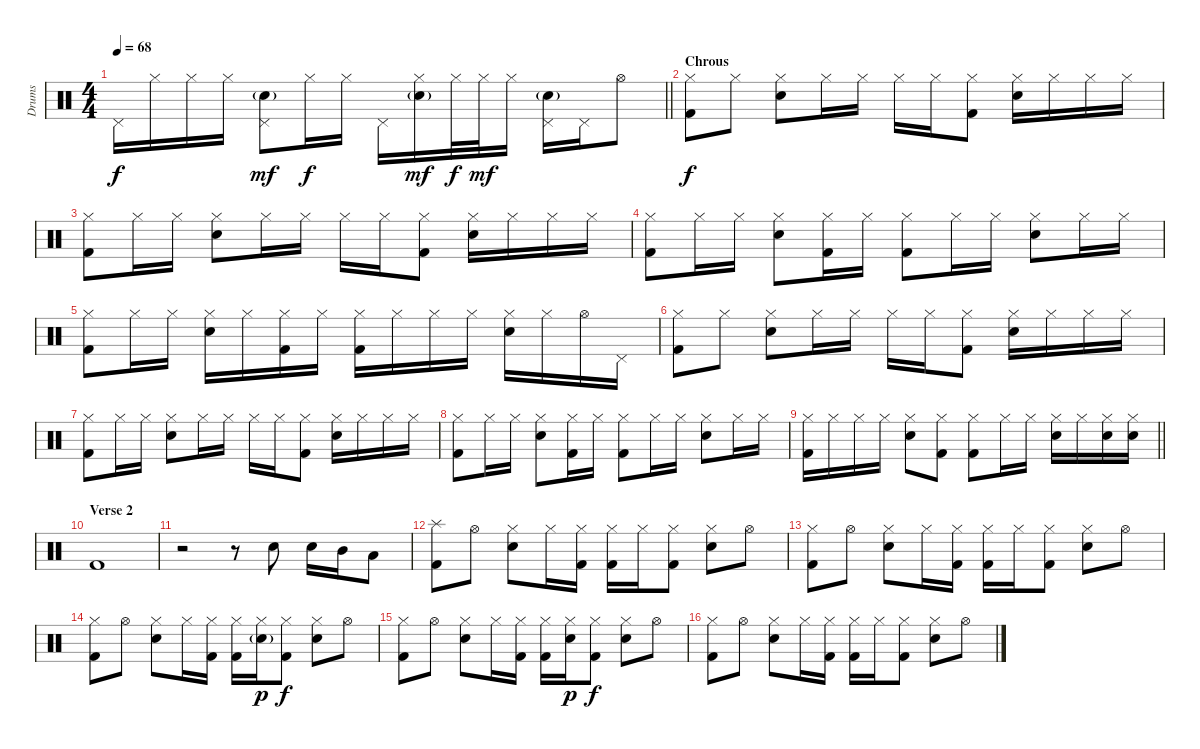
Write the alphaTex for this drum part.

\track ("Drums" "Drums") {instrument percussion}
\staff {score}
\articulation defaults
\ts (4 4)
\tempo 68
\clef neutral
\barLineRight lightlight
\ks c "Pedal Hi-Hat (hit)".16{dy f} "Hi-Hat (closed)".16 "Hi-Hat (closed)".16 "Hi-Hat (closed)".16
("Pedal Hi-Hat (hit)" "Snare (hit) 2"{g}).8{dy mf} "Hi-Hat (closed)".16{dy f} "Hi-Hat (closed)".16 "Pedal Hi-Hat (hit)".16 ("Hi-Hat (closed)" "Snare (hit) 2"{g}).16{dy mf} "Hi-Hat (closed)".32{dy f} "Hi-Hat (closed)".32{dy mf} "Hi-Hat (closed)".16 ("Pedal Hi-Hat (hit)" "Snare (hit) 2"{g}).16 "Pedal Hi-Hat (hit)".16 "Hi-Hat (open)".8 |
\section ("" "Chrous")
("Hi-Hat (closed)" "Kick (hit) 2").8{dy f volume 9} "Hi-Hat (closed)".8 ("Hi-Hat (closed)" "Snare (hit) 2").8 "Hi-Hat (closed)".16 "Hi-Hat (closed)".16 "Hi-Hat (closed)".16 "Hi-Hat (closed)".16 ("Hi-Hat (closed)" "Kick (hit) 2").8 ("Hi-Hat (closed)" "Snare (hit) 2").16 "Hi-Hat (closed)".16 "Hi-Hat (closed)".16 "Hi-Hat (closed)".16 |
("Hi-Hat (closed)" "Kick (hit) 2").8 "Hi-Hat (closed)".16 "Hi-Hat (closed)".16 ("Hi-Hat (closed)" "Snare (hit) 2").8 "Hi-Hat (closed)".16 "Hi-Hat (closed)".16 "Hi-Hat (closed)".16 "Hi-Hat (closed)".16 ("Hi-Hat (closed)" "Kick (hit) 2").8 ("Hi-Hat (closed)" "Snare (hit) 2").16 "Hi-Hat (closed)".16 "Hi-Hat (closed)".16 "Hi-Hat (closed)".16 |
("Hi-Hat (closed)" "Kick (hit) 2").8 "Hi-Hat (closed)".16 "Hi-Hat (closed)".16 ("Hi-Hat (closed)" "Snare (hit) 2").8 ("Hi-Hat (closed)" "Kick (hit) 2").16 "Hi-Hat (closed)".16 ("Hi-Hat (closed)" "Kick (hit) 2").8 "Hi-Hat (closed)".16 "Hi-Hat (closed)".16 ("Hi-Hat (closed)" "Snare (hit) 2").8 "Hi-Hat (closed)".16 "Hi-Hat (closed)".16 |
("Hi-Hat (closed)" "Kick (hit) 2").8 "Hi-Hat (closed)".16 "Hi-Hat (closed)".16 ("Hi-Hat (closed)" "Snare (hit) 2").16 "Hi-Hat (closed)".16 ("Hi-Hat (closed)" "Kick (hit) 2").16 "Hi-Hat (closed)".16 ("Hi-Hat (closed)" "Kick (hit) 2").16 "Hi-Hat (closed)".16 "Hi-Hat (closed)".16 "Hi-Hat (closed)".16 ("Hi-Hat (closed)" "Snare (hit) 2").16 "Hi-Hat (closed)".16 "Hi-Hat (open)".16 "Pedal Hi-Hat (hit)".16 |
("Hi-Hat (closed)" "Kick (hit) 2").8 "Hi-Hat (closed)".8 ("Hi-Hat (closed)" "Snare (hit) 2").8 "Hi-Hat (closed)".16 "Hi-Hat (closed)".16 "Hi-Hat (closed)".16 "Hi-Hat (closed)".16 ("Hi-Hat (closed)" "Kick (hit) 2").8 ("Hi-Hat (closed)" "Snare (hit) 2").16 "Hi-Hat (closed)".16 "Hi-Hat (closed)".16 "Hi-Hat (closed)".16 |
("Hi-Hat (closed)" "Kick (hit) 2").8 "Hi-Hat (closed)".16 "Hi-Hat (closed)".16 ("Hi-Hat (closed)" "Snare (hit) 2").8 "Hi-Hat (closed)".16 "Hi-Hat (closed)".16 "Hi-Hat (closed)".16 "Hi-Hat (closed)".16 ("Hi-Hat (closed)" "Kick (hit) 2").8 ("Hi-Hat (closed)" "Snare (hit) 2").16 "Hi-Hat (closed)".16 "Hi-Hat (closed)".16 "Hi-Hat (closed)".16 |
("Hi-Hat (closed)" "Kick (hit) 2").8 "Hi-Hat (closed)".16 "Hi-Hat (closed)".16 ("Hi-Hat (closed)" "Snare (hit) 2").8 ("Hi-Hat (closed)" "Kick (hit) 2").16 "Hi-Hat (closed)".16 ("Hi-Hat (closed)" "Kick (hit) 2").8 "Hi-Hat (closed)".16 "Hi-Hat (closed)".16 ("Hi-Hat (closed)" "Snare (hit) 2").8 "Hi-Hat (closed)".16 "Hi-Hat (closed)".16 |
\barLineRight lightlight
("Hi-Hat (closed)" "Kick (hit) 2").16 "Hi-Hat (closed)".16 "Hi-Hat (closed)".16 "Hi-Hat (closed)".16 ("Hi-Hat (closed)" "Snare (hit) 2").8 ("Hi-Hat (closed)" "Kick (hit) 2").8 ("Hi-Hat (closed)" "Kick (hit) 2").8 "Hi-Hat (closed)".16 "Hi-Hat (closed)".16 ("Hi-Hat (closed)" "Snare (hit) 2").16 "Hi-Hat (closed)".16 ("Hi-Hat (closed)" "Snare (hit) 2").16 ("Hi-Hat (closed)" "Snare (hit) 2").16 |
\section ("" "Verse 2")
"Kick (hit) 2".1 |
r.2{volume 13} r.8 "Electric Snare (hit)".8 "Electric Snare (hit)".16 "Mid Tom (hit)".16 "Low Tom (hit)".8 |
("Splash (hit)" "Kick (hit) 2").8 "Hi-Hat (open)".8 ("Hi-Hat (closed)" "Electric Snare (hit)").8 "Hi-Hat (closed)".16 ("Hi-Hat (closed)" "Kick (hit) 2").16 ("Hi-Hat (closed)" "Kick (hit) 2").16 "Hi-Hat (closed)".16 ("Hi-Hat (closed)" "Kick (hit) 2").8 ("Hi-Hat (closed)" "Electric Snare (hit)").8 "Hi-Hat (open)".8 |
("Hi-Hat (closed)" "Kick (hit) 2").8 "Hi-Hat (open)".8 ("Hi-Hat (closed)" "Electric Snare (hit)").8 "Hi-Hat (closed)".16 ("Hi-Hat (closed)" "Kick (hit) 2").16 ("Hi-Hat (closed)" "Kick (hit) 2").16 "Hi-Hat (closed)".16 ("Hi-Hat (closed)" "Kick (hit) 2").8 ("Hi-Hat (closed)" "Electric Snare (hit)").8 "Hi-Hat (open)".8 |
("Hi-Hat (closed)" "Kick (hit) 2").8 "Hi-Hat (open)".8 ("Hi-Hat (closed)" "Electric Snare (hit)").8 "Hi-Hat (closed)".16 ("Hi-Hat (closed)" "Kick (hit) 2").16 ("Hi-Hat (closed)" "Kick (hit) 2").16 ("Hi-Hat (closed)" "Electric Snare (hit)"{g}).16{dy p} ("Hi-Hat (closed)" "Kick (hit) 2").8{dy f} ("Hi-Hat (closed)" "Electric Snare (hit)").8 "Hi-Hat (open)".8 |
("Hi-Hat (closed)" "Kick (hit) 2").8 "Hi-Hat (open)".8 ("Hi-Hat (closed)" "Electric Snare (hit)").8 "Hi-Hat (closed)".16 ("Hi-Hat (closed)" "Kick (hit) 2").16 ("Hi-Hat (closed)" "Kick (hit) 2").16 ("Hi-Hat (closed)" "Electric Snare (hit)").16{dy p} ("Hi-Hat (closed)" "Kick (hit) 2").8{dy f} ("Hi-Hat (closed)" "Electric Snare (hit)").8 "Hi-Hat (open)".8 |
("Hi-Hat (closed)" "Kick (hit) 2").8 "Hi-Hat (open)".8 ("Hi-Hat (closed)" "Electric Snare (hit)").8 "Hi-Hat (closed)".16 ("Hi-Hat (closed)" "Kick (hit) 2").16 ("Hi-Hat (closed)" "Kick (hit) 2").16 "Hi-Hat (closed)".16 ("Hi-Hat (closed)" "Kick (hit) 2").8 ("Hi-Hat (closed)" "Electric Snare (hit)").8 "Hi-Hat (open)".8
